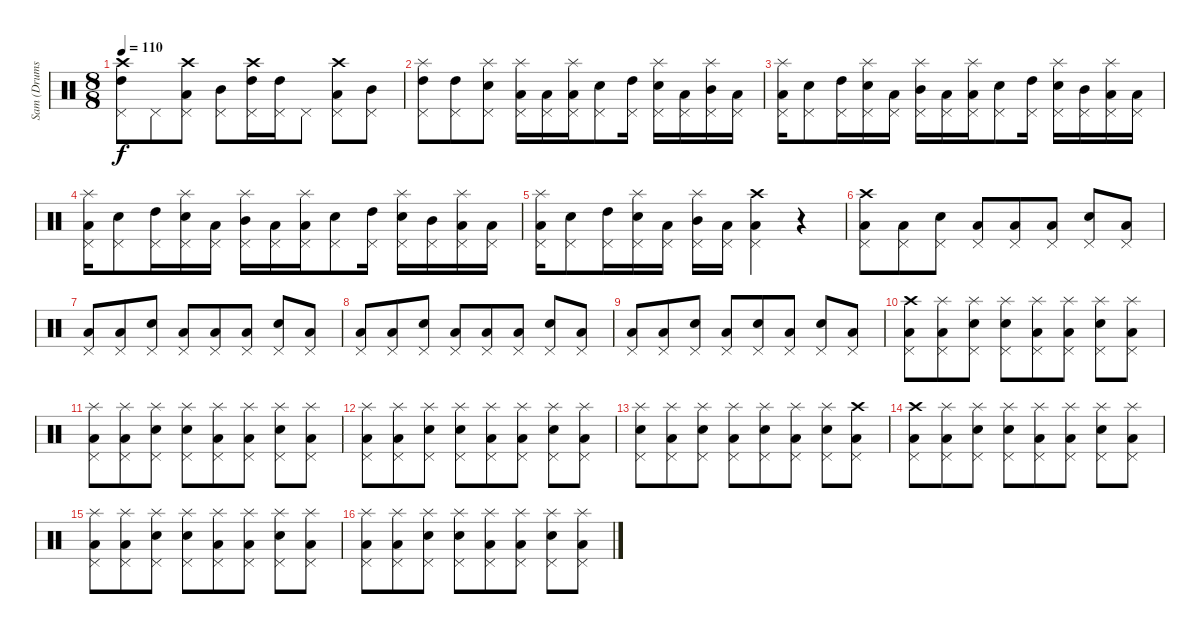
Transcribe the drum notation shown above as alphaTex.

\track ("Sam (Drums)" "Sam (Drums") {instrument percussion}
\staff {score}
\articulation defaults
\ts (8 8)
\tempo 110
\clef neutral
\ks c
("Crash high (hit)" "High Tom (hit)" "Pedal Hi-Hat (hit)").8{dy f} "Pedal Hi-Hat (hit)".8 ("Crash high (hit)" "Low Tom (hit)" "Pedal Hi-Hat (hit)").8 ("Mid Tom (hit)" "Pedal Hi-Hat (hit)").8 ("Crash high (hit)" "High Tom (hit)" "Pedal Hi-Hat (hit)").16 ("High Tom (hit)" "Pedal Hi-Hat (hit)").16 "Pedal Hi-Hat (hit)".8 ("Crash high (hit)" "Low Tom (hit)" "Pedal Hi-Hat (hit)").8 ("Mid Tom (hit)" "Pedal Hi-Hat (hit)").8 |
("Splash (hit)" "High Tom (hit)" "Pedal Hi-Hat (hit)").8 ("High Tom (hit)" "Pedal Hi-Hat (hit)").8 ("Splash (hit)" "Electric Snare (hit)" "Pedal Hi-Hat (hit)").8 ("Splash (hit)" "Low Tom (hit)" "Pedal Hi-Hat (hit)").16 ("Low Tom (hit)" "Pedal Hi-Hat (hit)").16 ("Splash (hit)" "Low Tom (hit)" "Pedal Hi-Hat (hit)").16 ("Electric Snare (hit)" "Pedal Hi-Hat (hit)").8 ("High Tom (hit)" "Pedal Hi-Hat (hit)").16 ("Splash (hit)" "Electric Snare (hit)" "Pedal Hi-Hat (hit)").16 ("Low Tom (hit)" "Pedal Hi-Hat (hit)").16 ("Splash (hit)" "Mid Tom (hit)" "Pedal Hi-Hat (hit)").16 ("Low Tom (hit)" "Pedal Hi-Hat (hit)").16 |
("Splash (hit)" "Low Tom (hit)" "Pedal Hi-Hat (hit)").16 ("Electric Snare (hit)" "Pedal Hi-Hat (hit)").8 ("High Tom (hit)" "Pedal Hi-Hat (hit)").16 ("Splash (hit)" "Electric Snare (hit)" "Pedal Hi-Hat (hit)").16 ("Low Tom (hit)" "Pedal Hi-Hat (hit)").16 ("Splash (hit)" "Mid Tom (hit)" "Pedal Hi-Hat (hit)").16 ("Low Tom (hit)" "Pedal Hi-Hat (hit)").16 ("Splash (hit)" "Low Tom (hit)" "Pedal Hi-Hat (hit)").16 ("Electric Snare (hit)" "Pedal Hi-Hat (hit)").8 ("High Tom (hit)" "Pedal Hi-Hat (hit)").16 ("Splash (hit)" "Electric Snare (hit)" "Pedal Hi-Hat (hit)").16 ("Mid Tom (hit)" "Pedal Hi-Hat (hit)").16 ("Splash (hit)" "Low Tom (hit)" "Pedal Hi-Hat (hit)").16 ("Low Tom (hit)" "Pedal Hi-Hat (hit)").16 |
("Splash (hit)" "Low Tom (hit)" "Pedal Hi-Hat (hit)").16 ("Electric Snare (hit)" "Pedal Hi-Hat (hit)").8 ("High Tom (hit)" "Pedal Hi-Hat (hit)").16 ("Splash (hit)" "Electric Snare (hit)" "Pedal Hi-Hat (hit)").16 ("Low Tom (hit)" "Pedal Hi-Hat (hit)").16 ("Splash (hit)" "Mid Tom (hit)" "Pedal Hi-Hat (hit)").16 ("Low Tom (hit)" "Pedal Hi-Hat (hit)").16 ("Splash (hit)" "Low Tom (hit)" "Pedal Hi-Hat (hit)").16 ("Electric Snare (hit)" "Pedal Hi-Hat (hit)").8 ("High Tom (hit)" "Pedal Hi-Hat (hit)").16 ("Splash (hit)" "Electric Snare (hit)" "Pedal Hi-Hat (hit)").16 ("Mid Tom (hit)" "Pedal Hi-Hat (hit)").16 ("Splash (hit)" "Low Tom (hit)" "Pedal Hi-Hat (hit)").16 ("Low Tom (hit)" "Pedal Hi-Hat (hit)").16 |
("Splash (hit)" "Low Tom (hit)" "Pedal Hi-Hat (hit)").16 ("Electric Snare (hit)" "Pedal Hi-Hat (hit)").8 ("High Tom (hit)" "Pedal Hi-Hat (hit)").16 ("Splash (hit)" "Electric Snare (hit)" "Pedal Hi-Hat (hit)").16 ("Low Tom (hit)" "Pedal Hi-Hat (hit)").16 ("Splash (hit)" "Mid Tom (hit)" "Pedal Hi-Hat (hit)").16 ("Low Tom (hit)" "Pedal Hi-Hat (hit)").16 ("Crash high (hit)" "Low Tom (hit)" "Pedal Hi-Hat (hit)").4 r.4 |
("Crash high (hit)" "Low Tom (hit)" "Pedal Hi-Hat (hit)").8 ("Low Tom (hit)" "Pedal Hi-Hat (hit)").8 ("Snare (hit) 2" "Pedal Hi-Hat (hit)").8 ("Low Tom (hit)" "Pedal Hi-Hat (hit)").8 ("Low Tom (hit)" "Pedal Hi-Hat (hit)").8 ("Low Tom (hit)" "Pedal Hi-Hat (hit)").8 ("Snare (hit) 2" "Pedal Hi-Hat (hit)").8 ("Low Tom (hit)" "Pedal Hi-Hat (hit)").8 |
("Low Tom (hit)" "Pedal Hi-Hat (hit)").8 ("Low Tom (hit)" "Pedal Hi-Hat (hit)").8 ("Snare (hit) 2" "Pedal Hi-Hat (hit)").8 ("Low Tom (hit)" "Pedal Hi-Hat (hit)").8 ("Low Tom (hit)" "Pedal Hi-Hat (hit)").8 ("Low Tom (hit)" "Pedal Hi-Hat (hit)").8 ("Snare (hit) 2" "Pedal Hi-Hat (hit)").8 ("Low Tom (hit)" "Pedal Hi-Hat (hit)").8 |
("Low Tom (hit)" "Pedal Hi-Hat (hit)").8 ("Low Tom (hit)" "Pedal Hi-Hat (hit)").8 ("Snare (hit) 2" "Pedal Hi-Hat (hit)").8 ("Low Tom (hit)" "Pedal Hi-Hat (hit)").8 ("Low Tom (hit)" "Pedal Hi-Hat (hit)").8 ("Low Tom (hit)" "Pedal Hi-Hat (hit)").8 ("Snare (hit) 2" "Pedal Hi-Hat (hit)").8 ("Low Tom (hit)" "Pedal Hi-Hat (hit)").8 |
("Low Tom (hit)" "Pedal Hi-Hat (hit)").8 ("Low Tom (hit)" "Pedal Hi-Hat (hit)").8 ("Snare (hit) 2" "Pedal Hi-Hat (hit)").8 ("Low Tom (hit)" "Pedal Hi-Hat (hit)").8 ("Snare (hit) 2" "Pedal Hi-Hat (hit)").8 ("Low Tom (hit)" "Pedal Hi-Hat (hit)").8 ("Snare (hit) 2" "Pedal Hi-Hat (hit)").8 ("Low Tom (hit)" "Pedal Hi-Hat (hit)").8 |
("Crash high (hit)" "Low Tom (hit)" "Pedal Hi-Hat (hit)").8 ("Splash (hit)" "Low Tom (hit)" "Pedal Hi-Hat (hit)").8 ("Splash (hit)" "Snare (hit) 2" "Pedal Hi-Hat (hit)").8 ("Splash (hit)" "Snare (hit) 2" "Pedal Hi-Hat (hit)").8 ("Splash (hit)" "Low Tom (hit)" "Pedal Hi-Hat (hit)").8 ("Splash (hit)" "Low Tom (hit)" "Pedal Hi-Hat (hit)").8 ("Splash (hit)" "Snare (hit) 2" "Pedal Hi-Hat (hit)").8 ("Splash (hit)" "Low Tom (hit)" "Pedal Hi-Hat (hit)").8 |
("Splash (hit)" "Low Tom (hit)" "Pedal Hi-Hat (hit)").8 ("Splash (hit)" "Low Tom (hit)" "Pedal Hi-Hat (hit)").8 ("Splash (hit)" "Snare (hit) 2" "Pedal Hi-Hat (hit)").8 ("Splash (hit)" "Snare (hit) 2" "Pedal Hi-Hat (hit)").8 ("Splash (hit)" "Low Tom (hit)" "Pedal Hi-Hat (hit)").8 ("Splash (hit)" "Low Tom (hit)" "Pedal Hi-Hat (hit)").8 ("Splash (hit)" "Snare (hit) 2" "Pedal Hi-Hat (hit)").8 ("Splash (hit)" "Low Tom (hit)" "Pedal Hi-Hat (hit)").8 |
("Splash (hit)" "Low Tom (hit)" "Pedal Hi-Hat (hit)").8 ("Splash (hit)" "Low Tom (hit)" "Pedal Hi-Hat (hit)").8 ("Splash (hit)" "Snare (hit) 2" "Pedal Hi-Hat (hit)").8 ("Splash (hit)" "Snare (hit) 2" "Pedal Hi-Hat (hit)").8 ("Splash (hit)" "Low Tom (hit)" "Pedal Hi-Hat (hit)").8 ("Splash (hit)" "Low Tom (hit)" "Pedal Hi-Hat (hit)").8 ("Splash (hit)" "Snare (hit) 2" "Pedal Hi-Hat (hit)").8 ("Splash (hit)" "Low Tom (hit)" "Pedal Hi-Hat (hit)").8 |
("Splash (hit)" "Snare (hit) 2" "Pedal Hi-Hat (hit)").8 ("Splash (hit)" "Low Tom (hit)" "Pedal Hi-Hat (hit)").8 ("Splash (hit)" "Snare (hit) 2" "Pedal Hi-Hat (hit)").8 ("Splash (hit)" "Low Tom (hit)" "Pedal Hi-Hat (hit)").8 ("Splash (hit)" "Snare (hit) 2" "Pedal Hi-Hat (hit)").8 ("Splash (hit)" "Low Tom (hit)" "Pedal Hi-Hat (hit)").8 ("Splash (hit)" "Snare (hit) 2" "Pedal Hi-Hat (hit)").8 ("Crash high (hit)" "Low Tom (hit)" "Pedal Hi-Hat (hit)").8 |
("Crash high (hit)" "Low Tom (hit)" "Pedal Hi-Hat (hit)").8 ("Splash (hit)" "Low Tom (hit)" "Pedal Hi-Hat (hit)").8 ("Splash (hit)" "Snare (hit) 2" "Pedal Hi-Hat (hit)").8 ("Splash (hit)" "Snare (hit) 2" "Pedal Hi-Hat (hit)").8 ("Splash (hit)" "Low Tom (hit)" "Pedal Hi-Hat (hit)").8 ("Splash (hit)" "Low Tom (hit)" "Pedal Hi-Hat (hit)").8 ("Splash (hit)" "Snare (hit) 2" "Pedal Hi-Hat (hit)").8 ("Splash (hit)" "Low Tom (hit)" "Pedal Hi-Hat (hit)").8 |
("Splash (hit)" "Low Tom (hit)" "Pedal Hi-Hat (hit)").8 ("Splash (hit)" "Low Tom (hit)" "Pedal Hi-Hat (hit)").8 ("Splash (hit)" "Snare (hit) 2" "Pedal Hi-Hat (hit)").8 ("Splash (hit)" "Snare (hit) 2" "Pedal Hi-Hat (hit)").8 ("Splash (hit)" "Low Tom (hit)" "Pedal Hi-Hat (hit)").8 ("Splash (hit)" "Low Tom (hit)" "Pedal Hi-Hat (hit)").8 ("Splash (hit)" "Snare (hit) 2" "Pedal Hi-Hat (hit)").8 ("Splash (hit)" "Low Tom (hit)" "Pedal Hi-Hat (hit)").8 |
("Splash (hit)" "Low Tom (hit)" "Pedal Hi-Hat (hit)").8 ("Splash (hit)" "Low Tom (hit)" "Pedal Hi-Hat (hit)").8 ("Splash (hit)" "Snare (hit) 2" "Pedal Hi-Hat (hit)").8 ("Splash (hit)" "Snare (hit) 2" "Pedal Hi-Hat (hit)").8 ("Splash (hit)" "Low Tom (hit)" "Pedal Hi-Hat (hit)").8 ("Splash (hit)" "Low Tom (hit)" "Pedal Hi-Hat (hit)").8 ("Splash (hit)" "Snare (hit) 2" "Pedal Hi-Hat (hit)").8 ("Splash (hit)" "Low Tom (hit)" "Pedal Hi-Hat (hit)").8
